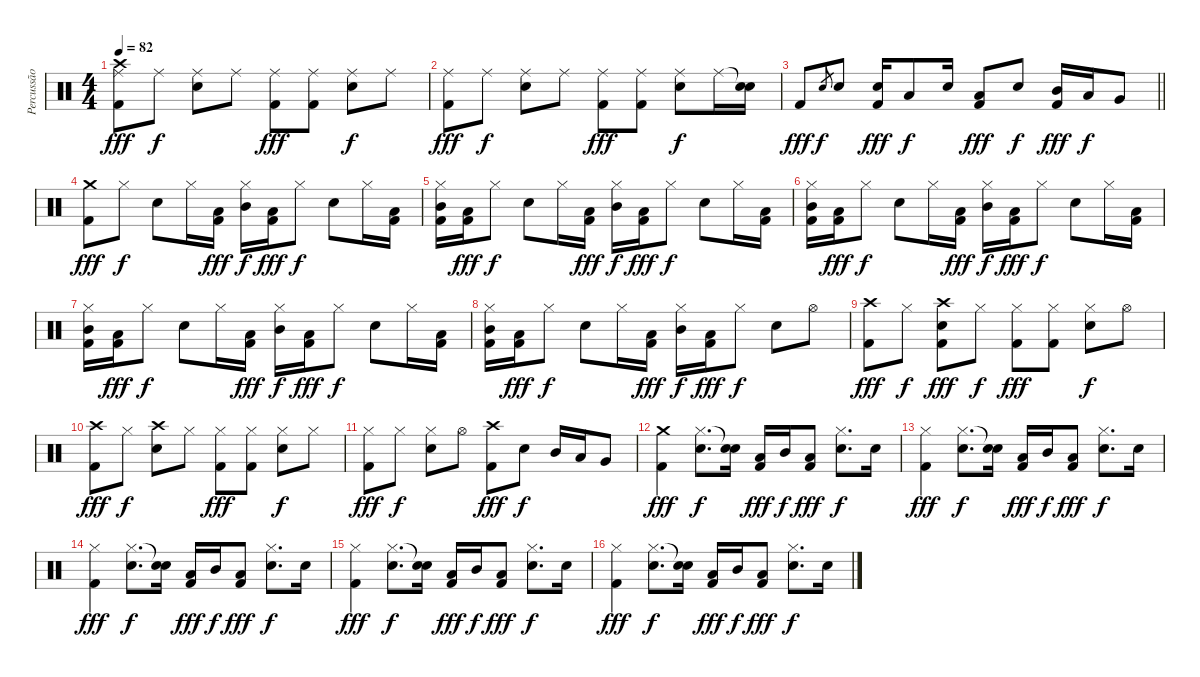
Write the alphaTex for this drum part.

\track ("Percussão" "Percussão") {instrument percussion}
\staff {score}
\articulation defaults
\ts (4 4)
\tempo 82
\clef neutral
\ks c
("Ride (middle)" "Crash high (hit)" "Kick (hit) 2").8{dy fff} "Ride (middle)".8{dy f} ("Ride (middle)" "Snare (hit) 2").8 "Ride (middle)".8 ("Ride (middle)" "Kick (hit) 2").8{dy fff} ("Ride (middle)" "Kick (hit) 2").8 ("Ride (middle)" "Snare (hit) 2").8{dy f} "Ride (middle)".8 |
("Ride (middle)" "Kick (hit) 2").8{dy fff} "Ride (middle)".8{dy f} ("Ride (middle)" "Snare (hit) 2").8 "Ride (middle)".8 ("Ride (middle)" "Kick (hit) 2").8{dy fff} ("Ride (middle)" "Kick (hit) 2").8 ("Ride (middle)" "Snare (hit) 2").8{dy f} "Ride (middle)".16 ("Snare (hit)"{t} "Snare (hit) 2").16 |
\barLineRight lightlight "Kick (hit) 2".8{dy fff} "Snare (hit) 2".8{gr dy f} "Snare (hit) 2".8
("Snare (hit) 2" "Kick (hit) 2").16{dy fff} "Low Tom (hit)".8{dy f} "Snare (hit) 2".16 ("Low Tom (hit)" "Kick (hit) 2").8{dy fff} "Snare (hit) 2".8{dy f} ("Mid Tom (hit)" "Kick (hit) 2").16{dy fff} "Low Tom (hit)".16{dy f} "Very Low Tom (hit)".8 |
("Crash medium (hit)" "Kick (hit) 2").8{dy fff} "Hi-Hat (closed)".8{dy f} "Snare (hit) 2".8 "Hi-Hat (closed)".16 ("Low Tom (hit)" "Kick (hit) 2").16{dy fff} ("Hi-Hat (closed)" "Mid Tom (hit)").16{dy f} ("Low Tom (hit)" "Kick (hit) 2").16{dy fff} "Hi-Hat (closed)".8{dy f} "Snare (hit) 2".8 "Hi-Hat (closed)".16 ("Low Tom (hit)" "Kick (hit) 2").16 |
("Hi-Hat (closed)" "Mid Tom (hit)" "Kick (hit) 2").16 ("Low Tom (hit)" "Kick (hit) 2").16{dy fff} "Hi-Hat (closed)".8{dy f} "Snare (hit) 2".8 "Hi-Hat (closed)".16 ("Low Tom (hit)" "Kick (hit) 2").16{dy fff} ("Hi-Hat (closed)" "Mid Tom (hit)").16{dy f} ("Low Tom (hit)" "Kick (hit) 2").16{dy fff} "Hi-Hat (closed)".8{dy f} "Snare (hit) 2".8 "Hi-Hat (closed)".16 ("Low Tom (hit)" "Kick (hit) 2").16 |
("Hi-Hat (closed)" "Mid Tom (hit)" "Kick (hit) 2").16 ("Low Tom (hit)" "Kick (hit) 2").16{dy fff} "Hi-Hat (closed)".8{dy f} "Snare (hit) 2".8 "Hi-Hat (closed)".16 ("Low Tom (hit)" "Kick (hit) 2").16{dy fff} ("Hi-Hat (closed)" "Mid Tom (hit)").16{dy f} ("Low Tom (hit)" "Kick (hit) 2").16{dy fff} "Hi-Hat (closed)".8{dy f} "Snare (hit) 2".8 "Hi-Hat (closed)".16 ("Low Tom (hit)" "Kick (hit) 2").16 |
("Hi-Hat (closed)" "Mid Tom (hit)" "Kick (hit) 2").16 ("Low Tom (hit)" "Kick (hit) 2").16{dy fff} "Hi-Hat (closed)".8{dy f} "Snare (hit) 2".8 "Hi-Hat (closed)".16 ("Low Tom (hit)" "Kick (hit) 2").16{dy fff} ("Hi-Hat (closed)" "Mid Tom (hit)").16{dy f} ("Low Tom (hit)" "Kick (hit) 2").16{dy fff} "Hi-Hat (closed)".8{dy f} "Snare (hit) 2".8 "Hi-Hat (closed)".16 ("Low Tom (hit)" "Kick (hit) 2").16 |
("Hi-Hat (closed)" "Mid Tom (hit)" "Kick (hit) 2").16 ("Low Tom (hit)" "Kick (hit) 2").16{dy fff} "Hi-Hat (closed)".8{dy f} "Snare (hit) 2".8 "Hi-Hat (closed)".16 ("Low Tom (hit)" "Kick (hit) 2").16{dy fff} ("Hi-Hat (closed)" "Mid Tom (hit)").16{dy f} ("Low Tom (hit)" "Kick (hit) 2").16{dy fff} "Hi-Hat (closed)".8{dy f} "Snare (hit) 2".8 "Hi-Hat (open)".8 |
("Crash high (hit)" "Kick (hit) 2").8{dy fff} "Hi-Hat (closed)".8{dy f} ("Crash high (hit)" "Snare (hit) 2" "Kick (hit) 2").8{dy fff} "Hi-Hat (closed)".8{dy f} ("Hi-Hat (closed)" "Kick (hit) 2").8{dy fff} ("Hi-Hat (closed)" "Kick (hit) 2").8 ("Hi-Hat (closed)" "Snare (hit) 2").8{dy f} "Hi-Hat (open)".8 |
("Crash high (hit)" "Kick (hit) 2").8{dy fff} "Hi-Hat (closed)".8{dy f} ("Crash high (hit)" "Snare (hit) 2").8 "Hi-Hat (closed)".8 ("Hi-Hat (closed)" "Kick (hit) 2").8{dy fff} ("Hi-Hat (closed)" "Kick (hit) 2").8 ("Hi-Hat (closed)" "Snare (hit) 2").8{dy f} "Hi-Hat (closed)".8 |
("Hi-Hat (closed)" "Kick (hit) 2").8{dy fff} "Hi-Hat (closed)".8{dy f} ("Hi-Hat (closed)" "Snare (hit) 2").8 "Hi-Hat (open)".8 ("Crash high (hit)" "Kick (hit) 2").8{dy fff} "Snare (hit) 2".8{dy f} "Mid Tom (hit)".16 "Low Tom (hit)".16 "Very Low Tom (hit)".8 |
("Crash medium (hit)" "Kick (hit) 2").4{dy fff} ("Hi-Hat (closed)" "Snare (hit) 2").8{d dy f} ("Snare (hit)"{t} "Snare (hit) 2").16 ("Low Tom (hit)" "Kick (hit) 2").16{dy fff} "Mid Tom (hit)".16{dy f} ("Low Tom (hit)" "Kick (hit) 2").8{dy fff} ("Hi-Hat (closed)" "Snare (hit) 2").8{d dy f} "Snare (hit) 2".16 |
("Hi-Hat (closed)" "Kick (hit) 2").4{dy fff} ("Hi-Hat (closed)" "Snare (hit) 2").8{d dy f} ("Snare (hit)"{t} "Snare (hit) 2").16 ("Low Tom (hit)" "Kick (hit) 2").16{dy fff} "Mid Tom (hit)".16{dy f} ("Low Tom (hit)" "Kick (hit) 2").8{dy fff} ("Hi-Hat (closed)" "Snare (hit) 2").8{d dy f} "Snare (hit) 2".16 |
("Hi-Hat (closed)" "Kick (hit) 2").4{dy fff} ("Hi-Hat (closed)" "Snare (hit) 2").8{d dy f} ("Snare (hit)"{t} "Snare (hit) 2").16 ("Low Tom (hit)" "Kick (hit) 2").16{dy fff} "Mid Tom (hit)".16{dy f} ("Low Tom (hit)" "Kick (hit) 2").8{dy fff} ("Hi-Hat (closed)" "Snare (hit) 2").8{d dy f} "Snare (hit) 2".16 |
("Hi-Hat (closed)" "Kick (hit) 2").4{dy fff} ("Hi-Hat (closed)" "Snare (hit) 2").8{d dy f} ("Snare (hit)"{t} "Snare (hit) 2").16 ("Low Tom (hit)" "Kick (hit) 2").16{dy fff} "Mid Tom (hit)".16{dy f} ("Low Tom (hit)" "Kick (hit) 2").8{dy fff} ("Hi-Hat (closed)" "Snare (hit) 2").8{d dy f} "Snare (hit) 2".16 |
("Hi-Hat (closed)" "Kick (hit) 2").4{dy fff} ("Hi-Hat (closed)" "Snare (hit) 2").8{d dy f} ("Snare (hit)"{t} "Snare (hit) 2").16 ("Low Tom (hit)" "Kick (hit) 2").16{dy fff} "Mid Tom (hit)".16{dy f} ("Low Tom (hit)" "Kick (hit) 2").8{dy fff} ("Hi-Hat (closed)" "Snare (hit) 2").8{d dy f} "Snare (hit) 2".16
